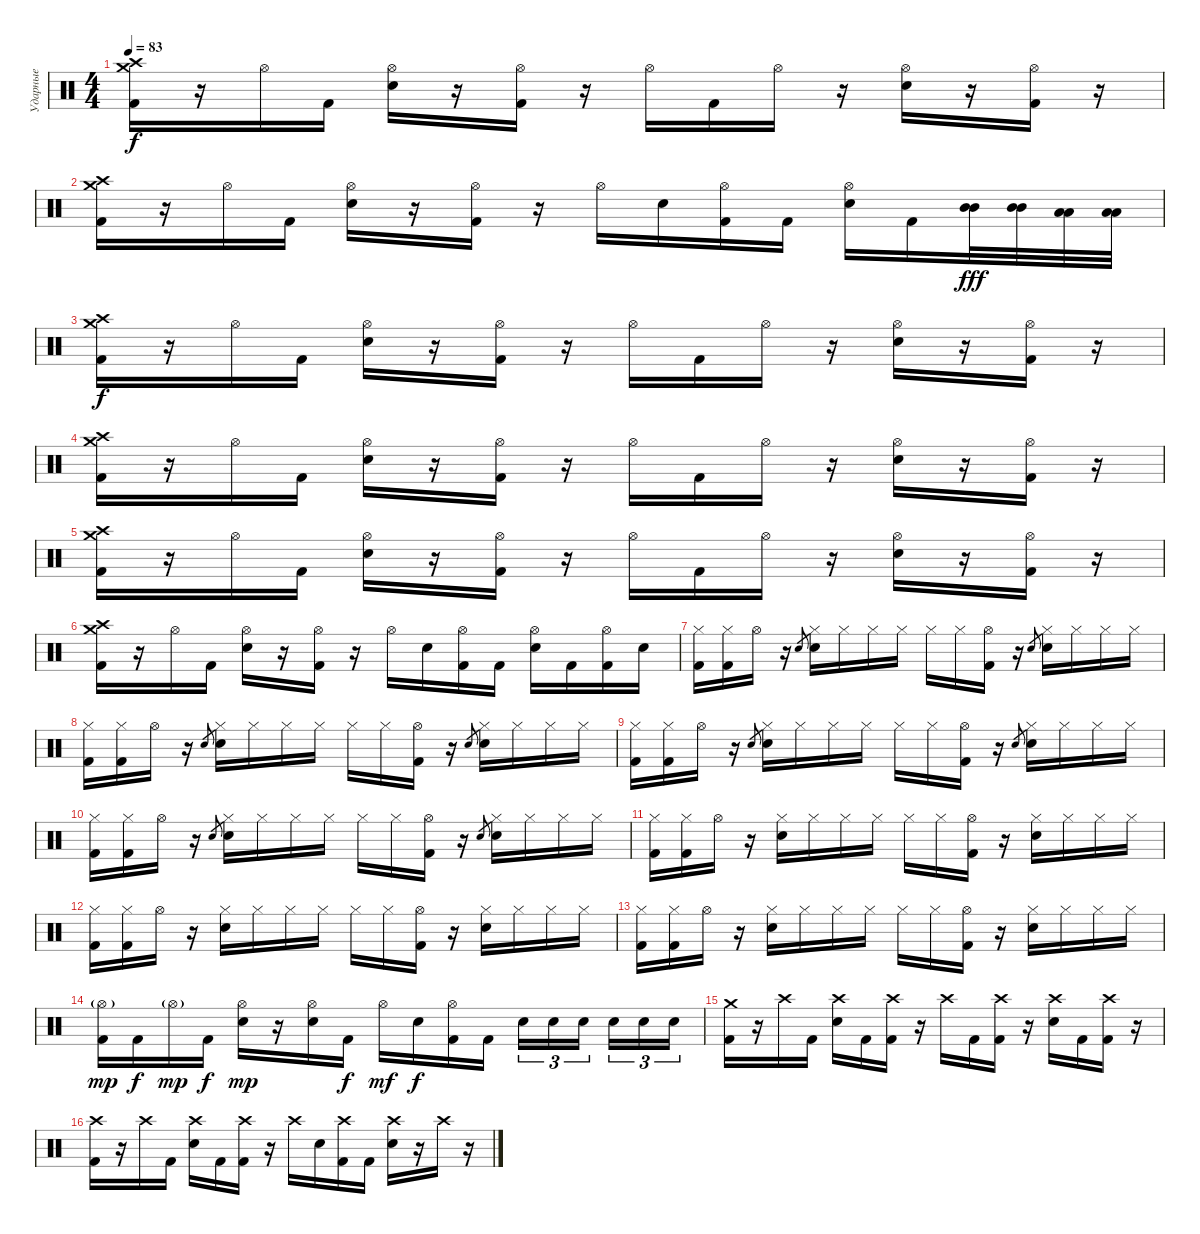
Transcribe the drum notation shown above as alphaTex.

\track ("Ударные" "Ударные") {instrument percussion}
\staff {score}
\articulation defaults
\ts (4 4)
\tempo 83
\clef neutral
\ks c
("Crash medium (hit)" "Crash high (hit)" "Kick (hit) 2").16{dy f} r.16 "Hi-Hat (open)".16 "Kick (hit) 2".16 ("Hi-Hat (open)" "Electric Snare (hit)").16 r.16 ("Hi-Hat (open)" "Kick (hit) 2").16 r.16 "Hi-Hat (open)".16 "Kick (hit) 2".16 "Hi-Hat (open)".16 r.16 ("Hi-Hat (open)" "Electric Snare (hit)").16 r.16 ("Hi-Hat (open)" "Kick (hit) 2").16 r.16 |
("Crash medium (hit)" "Crash high (hit)" "Kick (hit) 2").16 r.16 "Hi-Hat (open)".16 "Kick (hit) 2".16 ("Hi-Hat (open)" "Electric Snare (hit)").16 r.16 ("Hi-Hat (open)" "Kick (hit) 2").16 r.16 "Hi-Hat (open)".16 "Electric Snare (hit)".16 ("Hi-Hat (open)" "Kick (hit) 2").16 "Kick (hit) 2".16 ("Hi-Hat (open)" "Electric Snare (hit)").16 "Kick (hit) 2".16 ("Mid Tom (hit)" "Mid Tom (hit)").32{dy fff} ("Mid Tom (hit)" "Mid Tom (hit)").32 ("Low Tom (hit)" "Low Tom (hit)").32 ("Low Tom (hit)" "Low Tom (hit)").32 |
("Crash medium (hit)" "Crash high (hit)" "Kick (hit) 2").16{dy f} r.16 "Hi-Hat (open)".16 "Kick (hit) 2".16 ("Hi-Hat (open)" "Electric Snare (hit)").16 r.16 ("Hi-Hat (open)" "Kick (hit) 2").16 r.16 "Hi-Hat (open)".16 "Kick (hit) 2".16 "Hi-Hat (open)".16 r.16 ("Hi-Hat (open)" "Electric Snare (hit)").16 r.16 ("Hi-Hat (open)" "Kick (hit) 2").16 r.16 |
("Crash medium (hit)" "Crash high (hit)" "Kick (hit) 2").16 r.16 "Hi-Hat (open)".16 "Kick (hit) 2".16 ("Hi-Hat (open)" "Electric Snare (hit)").16 r.16 ("Hi-Hat (open)" "Kick (hit) 2").16 r.16 "Hi-Hat (open)".16 "Kick (hit) 2".16 "Hi-Hat (open)".16 r.16 ("Hi-Hat (open)" "Electric Snare (hit)").16 r.16 ("Hi-Hat (open)" "Kick (hit) 2").16 r.16 |
("Crash medium (hit)" "Crash high (hit)" "Kick (hit) 2").16 r.16 "Hi-Hat (open)".16 "Kick (hit) 2".16 ("Hi-Hat (open)" "Electric Snare (hit)").16 r.16 ("Hi-Hat (open)" "Kick (hit) 2").16 r.16 "Hi-Hat (open)".16 "Kick (hit) 2".16 "Hi-Hat (open)".16 r.16 ("Hi-Hat (open)" "Electric Snare (hit)").16 r.16 ("Hi-Hat (open)" "Kick (hit) 2").16 r.16 |
("Crash medium (hit)" "Crash high (hit)" "Kick (hit) 2").16 r.16 "Hi-Hat (open)".16 "Kick (hit) 2".16 ("Hi-Hat (open)" "Electric Snare (hit)").16 r.16 ("Hi-Hat (open)" "Kick (hit) 2").16 r.16 "Hi-Hat (open)".16 "Electric Snare (hit)".16 ("Hi-Hat (open)" "Kick (hit) 2").16 "Kick (hit) 2".16 ("Hi-Hat (open)" "Electric Snare (hit)").16 "Kick (hit) 2".16 ("Hi-Hat (open)" "Kick (hit) 2").16 "Electric Snare (hit)".16 |
("Hi-Hat (closed)" "Kick (hit) 2").16 ("Hi-Hat (closed)" "Kick (hit) 2").16 "Hi-Hat (open)".16 r.16 "Electric Snare (hit)".8{gr} ("Hi-Hat (closed)" "Electric Snare (hit)").16 "Hi-Hat (closed)".16 "Hi-Hat (closed)".16 "Hi-Hat (closed)".16 "Hi-Hat (closed)".16 "Hi-Hat (closed)".16 ("Hi-Hat (open)" "Kick (hit) 2").16 r.16 "Electric Snare (hit)".8{gr} ("Hi-Hat (closed)" "Electric Snare (hit)").16 "Hi-Hat (closed)".16 "Hi-Hat (closed)".16 "Hi-Hat (closed)".16 |
("Hi-Hat (closed)" "Kick (hit) 2").16 ("Hi-Hat (closed)" "Kick (hit) 2").16 "Hi-Hat (open)".16 r.16 "Electric Snare (hit)".8{gr} ("Hi-Hat (closed)" "Electric Snare (hit)").16 "Hi-Hat (closed)".16 "Hi-Hat (closed)".16 "Hi-Hat (closed)".16 "Hi-Hat (closed)".16 "Hi-Hat (closed)".16 ("Hi-Hat (open)" "Kick (hit) 2").16 r.16 "Electric Snare (hit)".8{gr} ("Hi-Hat (closed)" "Electric Snare (hit)").16 "Hi-Hat (closed)".16 "Hi-Hat (closed)".16 "Hi-Hat (closed)".16 |
("Hi-Hat (closed)" "Kick (hit) 2").16 ("Hi-Hat (closed)" "Kick (hit) 2").16 "Hi-Hat (open)".16 r.16 "Electric Snare (hit)".8{gr} ("Hi-Hat (closed)" "Electric Snare (hit)").16 "Hi-Hat (closed)".16 "Hi-Hat (closed)".16 "Hi-Hat (closed)".16 "Hi-Hat (closed)".16 "Hi-Hat (closed)".16 ("Hi-Hat (open)" "Kick (hit) 2").16 r.16 "Electric Snare (hit)".8{gr} ("Hi-Hat (closed)" "Electric Snare (hit)").16 "Hi-Hat (closed)".16 "Hi-Hat (closed)".16 "Hi-Hat (closed)".16 |
("Hi-Hat (closed)" "Kick (hit) 2").16 ("Hi-Hat (closed)" "Kick (hit) 2").16 "Hi-Hat (open)".16 r.16 "Electric Snare (hit)".8{gr} ("Hi-Hat (closed)" "Electric Snare (hit)").16 "Hi-Hat (closed)".16 "Hi-Hat (closed)".16 "Hi-Hat (closed)".16 "Hi-Hat (closed)".16 "Hi-Hat (closed)".16 ("Hi-Hat (open)" "Kick (hit) 2").16 r.16 "Electric Snare (hit)".8{gr} ("Hi-Hat (closed)" "Electric Snare (hit)").16 "Hi-Hat (closed)".16 "Hi-Hat (closed)".16 "Hi-Hat (closed)".16 |
("Hi-Hat (closed)" "Kick (hit) 2").16 ("Hi-Hat (closed)" "Kick (hit) 2").16 "Hi-Hat (open)".16 r.16 ("Hi-Hat (closed)" "Electric Snare (hit)").16 "Hi-Hat (closed)".16 "Hi-Hat (closed)".16 "Hi-Hat (closed)".16 "Hi-Hat (closed)".16 "Hi-Hat (closed)".16 ("Hi-Hat (open)" "Kick (hit) 2").16 r.16 ("Hi-Hat (closed)" "Electric Snare (hit)").16 "Hi-Hat (closed)".16 "Hi-Hat (closed)".16 "Hi-Hat (closed)".16 |
("Hi-Hat (closed)" "Kick (hit) 2").16 ("Hi-Hat (closed)" "Kick (hit) 2").16 "Hi-Hat (open)".16 r.16 ("Hi-Hat (closed)" "Electric Snare (hit)").16 "Hi-Hat (closed)".16 "Hi-Hat (closed)".16 "Hi-Hat (closed)".16 "Hi-Hat (closed)".16 "Hi-Hat (closed)".16 ("Hi-Hat (open)" "Kick (hit) 2").16 r.16 ("Hi-Hat (closed)" "Electric Snare (hit)").16 "Hi-Hat (closed)".16 "Hi-Hat (closed)".16 "Hi-Hat (closed)".16 |
("Hi-Hat (closed)" "Kick (hit) 2").16 ("Hi-Hat (closed)" "Kick (hit) 2").16 "Hi-Hat (open)".16 r.16 ("Hi-Hat (closed)" "Electric Snare (hit)").16 "Hi-Hat (closed)".16 "Hi-Hat (closed)".16 "Hi-Hat (closed)".16 "Hi-Hat (closed)".16 "Hi-Hat (closed)".16 ("Hi-Hat (open)" "Kick (hit) 2").16 r.16 ("Hi-Hat (closed)" "Electric Snare (hit)").16 "Hi-Hat (closed)".16 "Hi-Hat (closed)".16 "Hi-Hat (closed)".16 |
("Hi-Hat (open)"{g} "Kick (hit) 2").16{dy mp} "Kick (hit) 2".16{dy f} "Hi-Hat (open)"{g}.16{dy mp} "Kick (hit) 2".16{dy f} ("Hi-Hat (open)" "Electric Snare (hit)").16{dy mp} r.16 ("Hi-Hat (open)" "Electric Snare (hit)").16 "Kick (hit) 2".16{dy f} "Hi-Hat (open)".16{dy mf} "Electric Snare (hit)".16{dy f} ("Hi-Hat (open)" "Kick (hit) 2").16 "Kick (hit) 2".16 "Electric Snare (hit)".16{tu (3 2)} "Electric Snare (hit)".16{tu (3 2)} "Electric Snare (hit)".16{tu (3 2) beam splitsecondary} "Electric Snare (hit)".16{tu (3 2)} "Electric Snare (hit)".16{tu (3 2)} "Electric Snare (hit)".16{tu (3 2)} |
("Crash medium (hit)" "Kick (hit) 2").16 r.16 "Crash high (hit)".16 "Kick (hit) 2".16 ("Crash high (hit)" "Electric Snare (hit)").16 "Kick (hit) 2".16 ("Crash high (hit)" "Kick (hit) 2").16 r.16 "Crash high (hit)".16 "Kick (hit) 2".16 ("Crash high (hit)" "Kick (hit) 2").16 r.16 ("Crash high (hit)" "Electric Snare (hit)").16 "Kick (hit) 2".16 ("Crash high (hit)" "Kick (hit) 2").16 r.16 |
("Crash high (hit)" "Kick (hit) 2").16 r.16 "Crash high (hit)".16 "Kick (hit) 2".16 ("Crash high (hit)" "Electric Snare (hit)").16 "Kick (hit) 2".16 ("Crash high (hit)" "Kick (hit) 2").16 r.16 "Crash high (hit)".16 "Electric Snare (hit)".16 ("Crash high (hit)" "Kick (hit) 2").16 "Kick (hit) 2".16 ("Crash high (hit)" "Electric Snare (hit)").16 r.16 "Crash high (hit)".16 r.16
